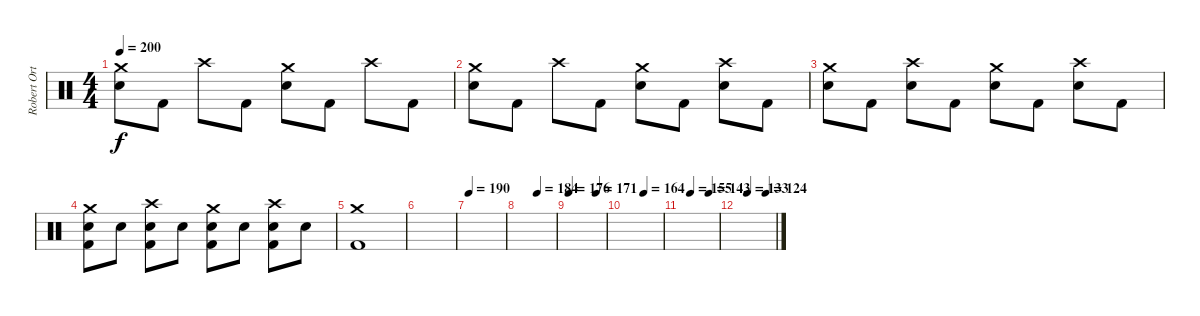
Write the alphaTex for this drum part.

\track ("Robert Ortiz - Drums" "Robert Ort") {instrument percussion}
\staff {score}
\articulation defaults
\ts (4 4)
\tempo 200
\clef neutral
\ks c
("Crash medium (hit)" "Electric Snare (hit)").8{dy f} "Kick (hit) 2".8 "Crash high (hit)".8 "Kick (hit) 2".8 ("Crash medium (hit)" "Electric Snare (hit)").8 "Kick (hit) 2".8 "Crash high (hit)".8 "Kick (hit) 2".8 |
("Crash medium (hit)" "Electric Snare (hit)").8 "Kick (hit) 2".8 "Crash high (hit)".8 "Kick (hit) 2".8 ("Crash medium (hit)" "Electric Snare (hit)").8 "Kick (hit) 2".8 ("Crash high (hit)" "Electric Snare (hit)").8 "Kick (hit) 2".8 |
("Crash medium (hit)" "Electric Snare (hit)").8 "Kick (hit) 2".8 ("Crash high (hit)" "Electric Snare (hit)").8 "Kick (hit) 2".8 ("Crash medium (hit)" "Electric Snare (hit)").8 "Kick (hit) 2".8 ("Crash high (hit)" "Electric Snare (hit)").8 "Kick (hit) 2".8 |
("Crash medium (hit)" "Kick (hit) 2" "Electric Snare (hit)").8 "Electric Snare (hit)".8 ("Crash high (hit)" "Kick (hit) 2" "Electric Snare (hit)").8 "Electric Snare (hit)".8 ("Crash medium (hit)" "Kick (hit) 2" "Electric Snare (hit)").8 "Electric Snare (hit)".8 ("Crash high (hit)" "Kick (hit) 2" "Electric Snare (hit)").8 "Electric Snare (hit)".8 |
("Crash medium (hit)" "Kick (hit) 2").1 |
|
\tempo 190
|
\tempo (184 0.5)
|
\tempo 176
\tempo (171 0.75)
|
\tempo (164 0.5)
|
\tempo (155 0.25)
\tempo (143 0.75)
|
\tempo (133 0.25)
\tempo (124 0.75)
